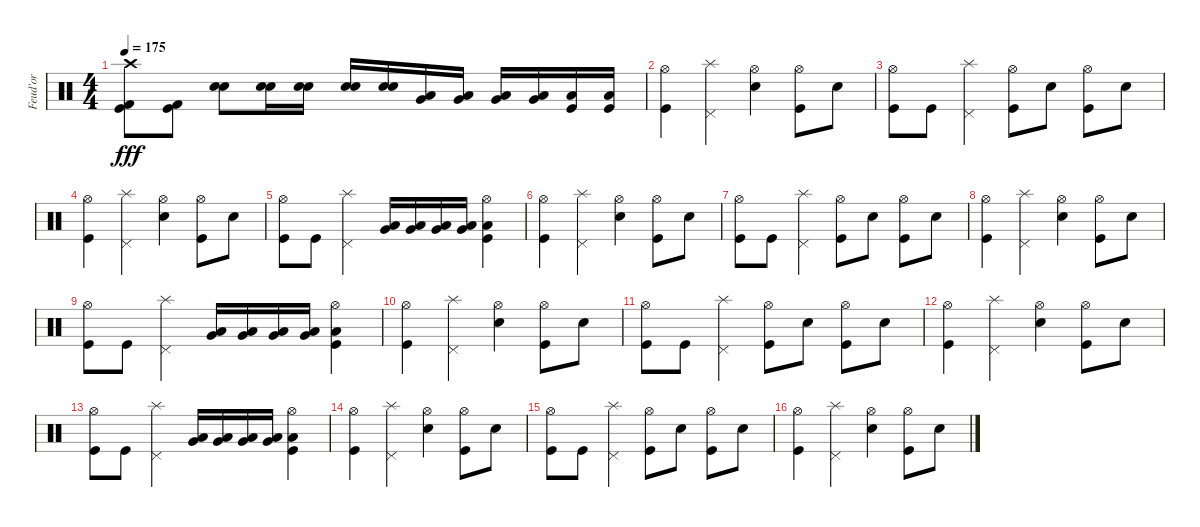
\track ("Feud'or" "Feud'or") {instrument percussion}
\staff {score}
\articulation defaults
\ts (4 4)
\tempo 175
\clef neutral
\ks c
("Crash high (hit)" "Kick (hit) 2" "Kick (hit)").8{dy fff} ("Kick (hit) 2" "Kick (hit)").8 ("Electric Snare (hit)" "Snare (hit) 2").8 ("Electric Snare (hit)" "Snare (hit) 2").16 ("Electric Snare (hit)" "Snare (hit) 2").16 ("Electric Snare (hit)" "Snare (hit) 2").16 ("Electric Snare (hit)" "Snare (hit) 2").16 ("Very Low Tom (hit)" "Low Tom (hit)").16 ("Very Low Tom (hit)" "Low Tom (hit)").16 ("Low Floor Tom (hit)" "Very Low Tom (hit)").16 ("Low Floor Tom (hit)" "Very Low Tom (hit)").16 ("Low Floor Tom (hit)" "Kick (hit)").16 ("Low Floor Tom (hit)" "Kick (hit)").16 |
("Hi-Hat (open)" "Kick (hit)").4 ("Pedal Hi-Hat (hit)" "Splash (hit)").4 ("Hi-Hat (open)" "Snare (hit) 2").4 ("Hi-Hat (open)" "Kick (hit)").8 "Snare (hit) 2".8 |
("Hi-Hat (open)" "Kick (hit)").8 "Kick (hit)".8 ("Pedal Hi-Hat (hit)" "Splash (hit)").4 ("Hi-Hat (open)" "Kick (hit)").8 "Snare (hit) 2".8 ("Hi-Hat (open)" "Kick (hit)").8 "Snare (hit) 2".8 |
("Hi-Hat (open)" "Kick (hit)").4 ("Pedal Hi-Hat (hit)" "Splash (hit)").4 ("Hi-Hat (open)" "Snare (hit) 2").4 ("Hi-Hat (open)" "Kick (hit)").8 "Snare (hit) 2".8 |
("Hi-Hat (open)" "Kick (hit)").8 "Kick (hit)".8 ("Pedal Hi-Hat (hit)" "Splash (hit)").4 ("Low Tom (hit)" "Very Low Tom (hit)").16 ("Low Tom (hit)" "Very Low Tom (hit)").16 ("Very Low Tom (hit)" "Low Floor Tom (hit)").16 ("Very Low Tom (hit)" "Low Floor Tom (hit)").16 ("Hi-Hat (open)" "Low Floor Tom (hit)" "Kick (hit)").4 |
("Hi-Hat (open)" "Kick (hit)").4 ("Pedal Hi-Hat (hit)" "Splash (hit)").4 ("Hi-Hat (open)" "Snare (hit) 2").4 ("Hi-Hat (open)" "Kick (hit)").8 "Snare (hit) 2".8 |
("Hi-Hat (open)" "Kick (hit)").8 "Kick (hit)".8 ("Pedal Hi-Hat (hit)" "Splash (hit)").4 ("Hi-Hat (open)" "Kick (hit)").8 "Snare (hit) 2".8 ("Hi-Hat (open)" "Kick (hit)").8 "Snare (hit) 2".8 |
("Hi-Hat (open)" "Kick (hit)").4 ("Pedal Hi-Hat (hit)" "Splash (hit)").4 ("Hi-Hat (open)" "Snare (hit) 2").4 ("Hi-Hat (open)" "Kick (hit)").8 "Snare (hit) 2".8 |
("Hi-Hat (open)" "Kick (hit)").8 "Kick (hit)".8 ("Pedal Hi-Hat (hit)" "Splash (hit)").4 ("Low Tom (hit)" "Very Low Tom (hit)").16 ("Low Tom (hit)" "Very Low Tom (hit)").16 ("Very Low Tom (hit)" "Low Floor Tom (hit)").16 ("Very Low Tom (hit)" "Low Floor Tom (hit)").16 ("Hi-Hat (open)" "Low Floor Tom (hit)" "Kick (hit)").4 |
("Hi-Hat (open)" "Kick (hit)").4 ("Pedal Hi-Hat (hit)" "Splash (hit)").4 ("Hi-Hat (open)" "Snare (hit) 2").4 ("Hi-Hat (open)" "Kick (hit)").8 "Snare (hit) 2".8 |
("Hi-Hat (open)" "Kick (hit)").8 "Kick (hit)".8 ("Pedal Hi-Hat (hit)" "Splash (hit)").4 ("Hi-Hat (open)" "Kick (hit)").8 "Snare (hit) 2".8 ("Hi-Hat (open)" "Kick (hit)").8 "Snare (hit) 2".8 |
("Hi-Hat (open)" "Kick (hit)").4 ("Pedal Hi-Hat (hit)" "Splash (hit)").4 ("Hi-Hat (open)" "Snare (hit) 2").4 ("Hi-Hat (open)" "Kick (hit)").8 "Snare (hit) 2".8 |
("Hi-Hat (open)" "Kick (hit)").8 "Kick (hit)".8 ("Pedal Hi-Hat (hit)" "Splash (hit)").4 ("Low Tom (hit)" "Very Low Tom (hit)").16 ("Low Tom (hit)" "Very Low Tom (hit)").16 ("Very Low Tom (hit)" "Low Floor Tom (hit)").16 ("Very Low Tom (hit)" "Low Floor Tom (hit)").16 ("Hi-Hat (open)" "Low Floor Tom (hit)" "Kick (hit)").4 |
("Hi-Hat (open)" "Kick (hit)").4 ("Pedal Hi-Hat (hit)" "Splash (hit)").4 ("Hi-Hat (open)" "Snare (hit) 2").4 ("Hi-Hat (open)" "Kick (hit)").8 "Snare (hit) 2".8 |
("Hi-Hat (open)" "Kick (hit)").8 "Kick (hit)".8 ("Pedal Hi-Hat (hit)" "Splash (hit)").4 ("Hi-Hat (open)" "Kick (hit)").8 "Snare (hit) 2".8 ("Hi-Hat (open)" "Kick (hit)").8 "Snare (hit) 2".8 |
("Hi-Hat (open)" "Kick (hit)").4 ("Pedal Hi-Hat (hit)" "Splash (hit)").4 ("Hi-Hat (open)" "Snare (hit) 2").4 ("Hi-Hat (open)" "Kick (hit)").8 "Snare (hit) 2".8
